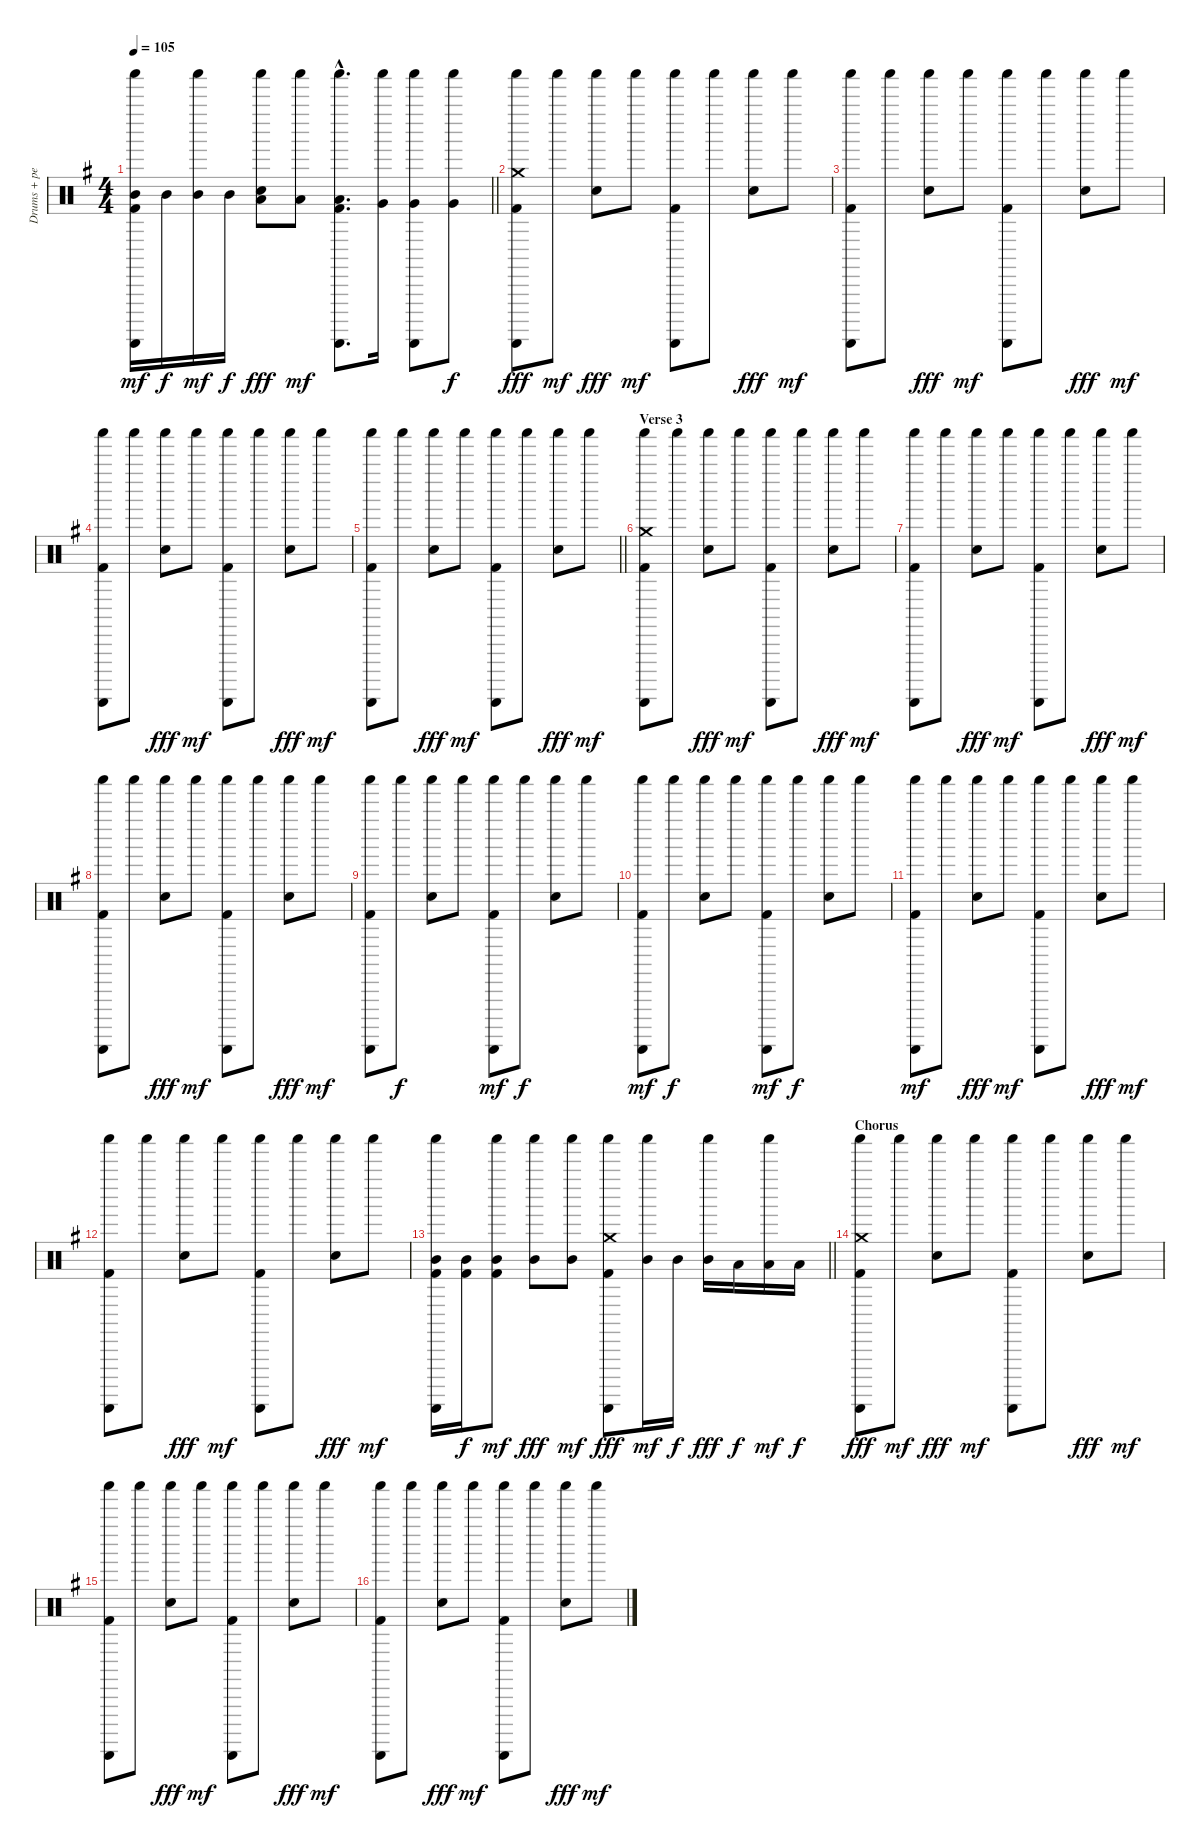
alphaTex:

\track ("Drums + percussion" "Drums + pe") {instrument percussion}
\staff {score}
\articulation defaults
\ts (4 4)
\tempo 105
\clef neutral
\barLineRight lightlight
\ks g
("Shaker (hit)" "Guiro (scrap-return)" "Mid Tom (hit)" "Kick (hit) 2").16{dy mf} "Mid Tom (hit)".16{dy f} ("Shaker (hit)" "Mid Tom (hit)").16{dy mf} "Mid Tom (hit)".16{dy f} ("Shaker (hit)" "Low Tom (hit)" "Snare (hit) 2").8{dy fff} ("Shaker (hit)" "Low Tom (hit)").8{dy mf} ("Shaker (hit)"{hac} "Guiro (scrap-return)"{hac} "Low Tom (hit)"{hac} "Kick (hit) 2"{hac}).8{d} ("Shaker (hit)" "Very Low Tom (hit)").16 ("Shaker (hit)" "Guiro (scrap-return)" "Very Low Tom (hit)").8 ("Shaker (hit)" "Very Low Tom (hit)").8{dy f} |
("Shaker (hit)" "Guiro (scrap-return)" "Crash medium (hit)" "Kick (hit) 2").8{dy fff} "Shaker (hit)".8{dy mf} ("Shaker (hit)" "Snare (hit) 2").8{dy fff} "Shaker (hit)".8{dy mf} ("Shaker (hit)" "Guiro (scrap-return)" "Kick (hit) 2").8 "Shaker (hit)".8 ("Shaker (hit)" "Snare (hit) 2").8{dy fff} "Shaker (hit)".8{dy mf} |
("Shaker (hit)" "Guiro (scrap-return)" "Kick (hit) 2").8 "Shaker (hit)".8 ("Shaker (hit)" "Snare (hit) 2").8{dy fff} "Shaker (hit)".8{dy mf} ("Shaker (hit)" "Guiro (scrap-return)" "Kick (hit) 2").8 "Shaker (hit)".8 ("Shaker (hit)" "Snare (hit) 2").8{dy fff} "Shaker (hit)".8{dy mf} |
("Shaker (hit)" "Guiro (scrap-return)" "Kick (hit) 2").8 "Shaker (hit)".8 ("Shaker (hit)" "Snare (hit) 2").8{dy fff} "Shaker (hit)".8{dy mf} ("Shaker (hit)" "Guiro (scrap-return)" "Kick (hit) 2").8 "Shaker (hit)".8 ("Shaker (hit)" "Snare (hit) 2").8{dy fff} "Shaker (hit)".8{dy mf} |
\barLineRight lightlight
("Shaker (hit)" "Guiro (scrap-return)" "Kick (hit) 2").8 "Shaker (hit)".8 ("Shaker (hit)" "Snare (hit) 2").8{dy fff} "Shaker (hit)".8{dy mf} ("Shaker (hit)" "Guiro (scrap-return)" "Kick (hit) 2").8 "Shaker (hit)".8 ("Shaker (hit)" "Snare (hit) 2").8{dy fff} "Shaker (hit)".8{dy mf} |
\section ("" "Verse 3")
("Shaker (hit)" "Guiro (scrap-return)" "Crash medium (hit)" "Kick (hit) 2").8{volume 10} "Shaker (hit)".8 ("Shaker (hit)" "Snare (hit) 2").8{dy fff} "Shaker (hit)".8{dy mf} ("Shaker (hit)" "Guiro (scrap-return)" "Kick (hit) 2").8 "Shaker (hit)".8 ("Shaker (hit)" "Snare (hit) 2").8{dy fff} "Shaker (hit)".8{dy mf} |
("Shaker (hit)" "Guiro (scrap-return)" "Kick (hit) 2").8 "Shaker (hit)".8 ("Shaker (hit)" "Snare (hit) 2").8{dy fff} "Shaker (hit)".8{dy mf} ("Shaker (hit)" "Guiro (scrap-return)" "Kick (hit) 2").8 "Shaker (hit)".8 ("Shaker (hit)" "Snare (hit) 2").8{dy fff} "Shaker (hit)".8{dy mf} |
("Shaker (hit)" "Guiro (scrap-return)" "Kick (hit) 2").8 "Shaker (hit)".8 ("Shaker (hit)" "Snare (hit) 2").8{dy fff} "Shaker (hit)".8{dy mf} ("Shaker (hit)" "Guiro (scrap-return)" "Kick (hit) 2").8 "Shaker (hit)".8 ("Shaker (hit)" "Snare (hit) 2").8{dy fff} "Shaker (hit)".8{dy mf} |
("Shaker (hit)" "Guiro (scrap-return)" "Kick (hit) 2").8 "Shaker (hit)".8{dy f} ("Shaker (hit)" "Snare (hit) 2").8 "Shaker (hit)".8 ("Shaker (hit)" "Guiro (scrap-return)" "Kick (hit) 2").8{dy mf} "Shaker (hit)".8{dy f} ("Shaker (hit)" "Snare (hit) 2").8 "Shaker (hit)".8 |
("Shaker (hit)" "Guiro (scrap-return)" "Kick (hit) 2").8{dy mf} "Shaker (hit)".8{dy f} ("Shaker (hit)" "Snare (hit) 2").8 "Shaker (hit)".8 ("Shaker (hit)" "Guiro (scrap-return)" "Kick (hit) 2").8{dy mf} "Shaker (hit)".8{dy f} ("Shaker (hit)" "Snare (hit) 2").8 "Shaker (hit)".8 |
("Shaker (hit)" "Guiro (scrap-return)" "Kick (hit) 2").8{dy mf} "Shaker (hit)".8 ("Shaker (hit)" "Snare (hit) 2").8{dy fff} "Shaker (hit)".8{dy mf} ("Shaker (hit)" "Guiro (scrap-return)" "Kick (hit) 2").8 "Shaker (hit)".8 ("Shaker (hit)" "Snare (hit) 2").8{dy fff} "Shaker (hit)".8{dy mf} |
("Shaker (hit)" "Guiro (scrap-return)" "Kick (hit) 2").8 "Shaker (hit)".8 ("Shaker (hit)" "Snare (hit) 2").8{dy fff} "Shaker (hit)".8{dy mf} ("Shaker (hit)" "Guiro (scrap-return)" "Kick (hit) 2").8 "Shaker (hit)".8 ("Shaker (hit)" "Snare (hit) 2").8{dy fff} "Shaker (hit)".8{dy mf} |
\barLineRight lightlight
("Shaker (hit)" "Guiro (scrap-return)" "Mid Tom (hit)" "Kick (hit) 2").16 ("Mid Tom (hit)" "Kick (hit) 2").16{dy f} ("Shaker (hit)" "Mid Tom (hit)" "Kick (hit) 2").8{dy mf} ("Shaker (hit)" "Mid Tom (hit)").8{dy fff} ("Shaker (hit)" "Mid Tom (hit)").8{dy mf} ("Shaker (hit)" "Guiro (scrap-return)" "Crash medium (hit)" "Kick (hit) 2").8{dy fff} ("Shaker (hit)" "Mid Tom (hit)").16{dy mf} "Mid Tom (hit)".16{dy f} ("Shaker (hit)" "Mid Tom (hit)").16{dy fff} "Low Tom (hit)".16{dy f} ("Shaker (hit)" "Low Tom (hit)").16{dy mf} "Low Tom (hit)".16{dy f} |
\section ("" "Chorus")
("Shaker (hit)" "Guiro (scrap-return)" "Crash medium (hit)" "Kick (hit) 2").8{dy fff} "Shaker (hit)".8{dy mf} ("Shaker (hit)" "Snare (hit) 2").8{dy fff} "Shaker (hit)".8{dy mf} ("Shaker (hit)" "Guiro (scrap-return)" "Kick (hit) 2").8 "Shaker (hit)".8 ("Shaker (hit)" "Snare (hit) 2").8{dy fff} "Shaker (hit)".8{dy mf} |
("Shaker (hit)" "Guiro (scrap-return)" "Kick (hit) 2").8 "Shaker (hit)".8 ("Shaker (hit)" "Snare (hit) 2").8{dy fff} "Shaker (hit)".8{dy mf} ("Shaker (hit)" "Guiro (scrap-return)" "Kick (hit) 2").8 "Shaker (hit)".8 ("Shaker (hit)" "Snare (hit) 2").8{dy fff} "Shaker (hit)".8{dy mf} |
("Shaker (hit)" "Guiro (scrap-return)" "Kick (hit) 2").8 "Shaker (hit)".8 ("Shaker (hit)" "Snare (hit) 2").8{dy fff} "Shaker (hit)".8{dy mf} ("Shaker (hit)" "Guiro (scrap-return)" "Kick (hit) 2").8 "Shaker (hit)".8 ("Shaker (hit)" "Snare (hit) 2").8{dy fff} "Shaker (hit)".8{dy mf}
